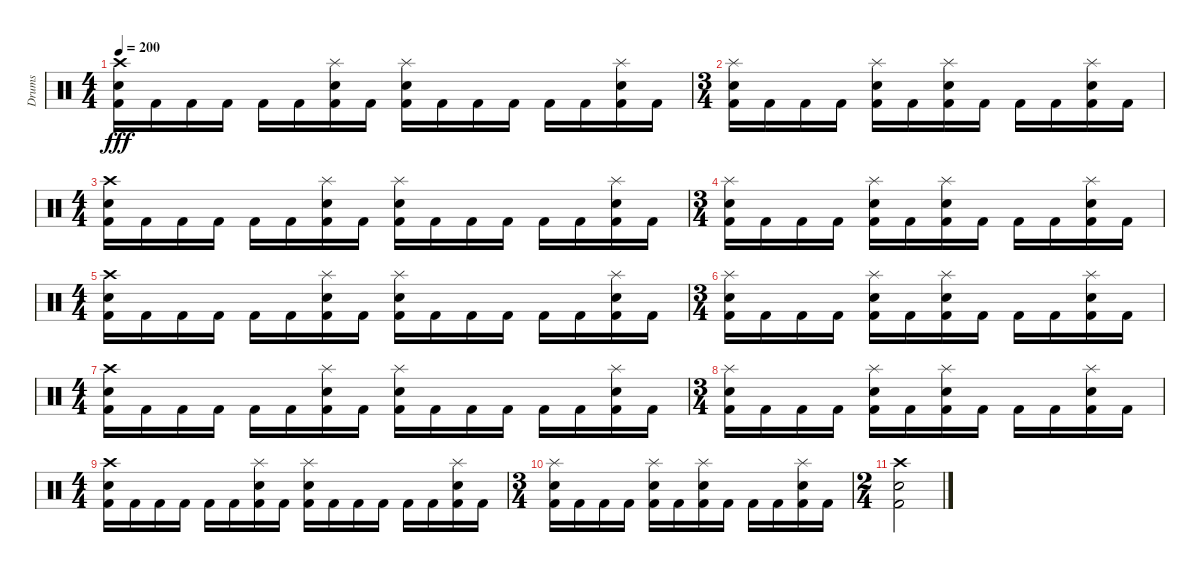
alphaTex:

\track ("Drums" "Drums") {instrument percussion}
\staff {score}
\articulation defaults
\ts (4 4)
\tempo 200
\clef neutral
\ks c
("Crash high (hit)" "Snare (hit) 2" "Kick (hit) 2").16{dy fff} "Kick (hit) 2".16 "Kick (hit) 2".16 "Kick (hit) 2".16 "Kick (hit) 2".16 "Kick (hit) 2".16 ("Splash (hit)" "Snare (hit) 2" "Kick (hit) 2").16 "Kick (hit) 2".16 ("Splash (hit)" "Snare (hit) 2" "Kick (hit) 2").16 "Kick (hit) 2".16 "Kick (hit) 2".16 "Kick (hit) 2".16 "Kick (hit) 2".16 "Kick (hit) 2".16 ("Splash (hit)" "Snare (hit) 2" "Kick (hit) 2").16 "Kick (hit) 2".16 |
\ts (3 4)
("Splash (hit)" "Snare (hit) 2" "Kick (hit) 2").16 "Kick (hit) 2".16 "Kick (hit) 2".16 "Kick (hit) 2".16 ("Splash (hit)" "Snare (hit) 2" "Kick (hit) 2").16 "Kick (hit) 2".16 ("Splash (hit)" "Snare (hit) 2" "Kick (hit) 2").16 "Kick (hit) 2".16 "Kick (hit) 2".16 "Kick (hit) 2".16 ("Splash (hit)" "Snare (hit) 2" "Kick (hit) 2").16 "Kick (hit) 2".16 |
\ts (4 4)
("Crash high (hit)" "Snare (hit) 2" "Kick (hit) 2").16 "Kick (hit) 2".16 "Kick (hit) 2".16 "Kick (hit) 2".16 "Kick (hit) 2".16 "Kick (hit) 2".16 ("Splash (hit)" "Snare (hit) 2" "Kick (hit) 2").16 "Kick (hit) 2".16 ("Splash (hit)" "Snare (hit) 2" "Kick (hit) 2").16 "Kick (hit) 2".16 "Kick (hit) 2".16 "Kick (hit) 2".16 "Kick (hit) 2".16 "Kick (hit) 2".16 ("Splash (hit)" "Snare (hit) 2" "Kick (hit) 2").16 "Kick (hit) 2".16 |
\ts (3 4)
("Splash (hit)" "Snare (hit) 2" "Kick (hit) 2").16 "Kick (hit) 2".16 "Kick (hit) 2".16 "Kick (hit) 2".16 ("Splash (hit)" "Snare (hit) 2" "Kick (hit) 2").16 "Kick (hit) 2".16 ("Splash (hit)" "Snare (hit) 2" "Kick (hit) 2").16 "Kick (hit) 2".16 "Kick (hit) 2".16 "Kick (hit) 2".16 ("Splash (hit)" "Snare (hit) 2" "Kick (hit) 2").16 "Kick (hit) 2".16 |
\ts (4 4)
("Crash high (hit)" "Snare (hit) 2" "Kick (hit) 2").16 "Kick (hit) 2".16 "Kick (hit) 2".16 "Kick (hit) 2".16 "Kick (hit) 2".16 "Kick (hit) 2".16 ("Splash (hit)" "Snare (hit) 2" "Kick (hit) 2").16 "Kick (hit) 2".16 ("Splash (hit)" "Snare (hit) 2" "Kick (hit) 2").16 "Kick (hit) 2".16 "Kick (hit) 2".16 "Kick (hit) 2".16 "Kick (hit) 2".16 "Kick (hit) 2".16 ("Splash (hit)" "Snare (hit) 2" "Kick (hit) 2").16 "Kick (hit) 2".16 |
\ts (3 4)
("Splash (hit)" "Snare (hit) 2" "Kick (hit) 2").16 "Kick (hit) 2".16 "Kick (hit) 2".16 "Kick (hit) 2".16 ("Splash (hit)" "Snare (hit) 2" "Kick (hit) 2").16 "Kick (hit) 2".16 ("Splash (hit)" "Snare (hit) 2" "Kick (hit) 2").16 "Kick (hit) 2".16 "Kick (hit) 2".16 "Kick (hit) 2".16 ("Splash (hit)" "Snare (hit) 2" "Kick (hit) 2").16 "Kick (hit) 2".16 |
\ts (4 4)
("Crash high (hit)" "Snare (hit) 2" "Kick (hit) 2").16 "Kick (hit) 2".16 "Kick (hit) 2".16 "Kick (hit) 2".16 "Kick (hit) 2".16 "Kick (hit) 2".16 ("Splash (hit)" "Snare (hit) 2" "Kick (hit) 2").16 "Kick (hit) 2".16 ("Splash (hit)" "Snare (hit) 2" "Kick (hit) 2").16 "Kick (hit) 2".16 "Kick (hit) 2".16 "Kick (hit) 2".16 "Kick (hit) 2".16 "Kick (hit) 2".16 ("Splash (hit)" "Snare (hit) 2" "Kick (hit) 2").16 "Kick (hit) 2".16 |
\ts (3 4)
("Splash (hit)" "Snare (hit) 2" "Kick (hit) 2").16 "Kick (hit) 2".16 "Kick (hit) 2".16 "Kick (hit) 2".16 ("Splash (hit)" "Snare (hit) 2" "Kick (hit) 2").16 "Kick (hit) 2".16 ("Splash (hit)" "Snare (hit) 2" "Kick (hit) 2").16 "Kick (hit) 2".16 "Kick (hit) 2".16 "Kick (hit) 2".16 ("Splash (hit)" "Snare (hit) 2" "Kick (hit) 2").16 "Kick (hit) 2".16 |
\ts (4 4)
("Crash high (hit)" "Snare (hit) 2" "Kick (hit) 2").16 "Kick (hit) 2".16 "Kick (hit) 2".16 "Kick (hit) 2".16 "Kick (hit) 2".16 "Kick (hit) 2".16 ("Splash (hit)" "Snare (hit) 2" "Kick (hit) 2").16 "Kick (hit) 2".16 ("Splash (hit)" "Snare (hit) 2" "Kick (hit) 2").16 "Kick (hit) 2".16 "Kick (hit) 2".16 "Kick (hit) 2".16 "Kick (hit) 2".16 "Kick (hit) 2".16 ("Splash (hit)" "Snare (hit) 2" "Kick (hit) 2").16 "Kick (hit) 2".16 |
\ts (3 4)
("Splash (hit)" "Snare (hit) 2" "Kick (hit) 2").16 "Kick (hit) 2".16 "Kick (hit) 2".16 "Kick (hit) 2".16 ("Splash (hit)" "Snare (hit) 2" "Kick (hit) 2").16 "Kick (hit) 2".16 ("Splash (hit)" "Snare (hit) 2" "Kick (hit) 2").16 "Kick (hit) 2".16 "Kick (hit) 2".16 "Kick (hit) 2".16 ("Splash (hit)" "Snare (hit) 2" "Kick (hit) 2").16 "Kick (hit) 2".16 |
\ts (2 4)
("Crash high (hit)" "Snare (hit) 2" "Kick (hit) 2").2
